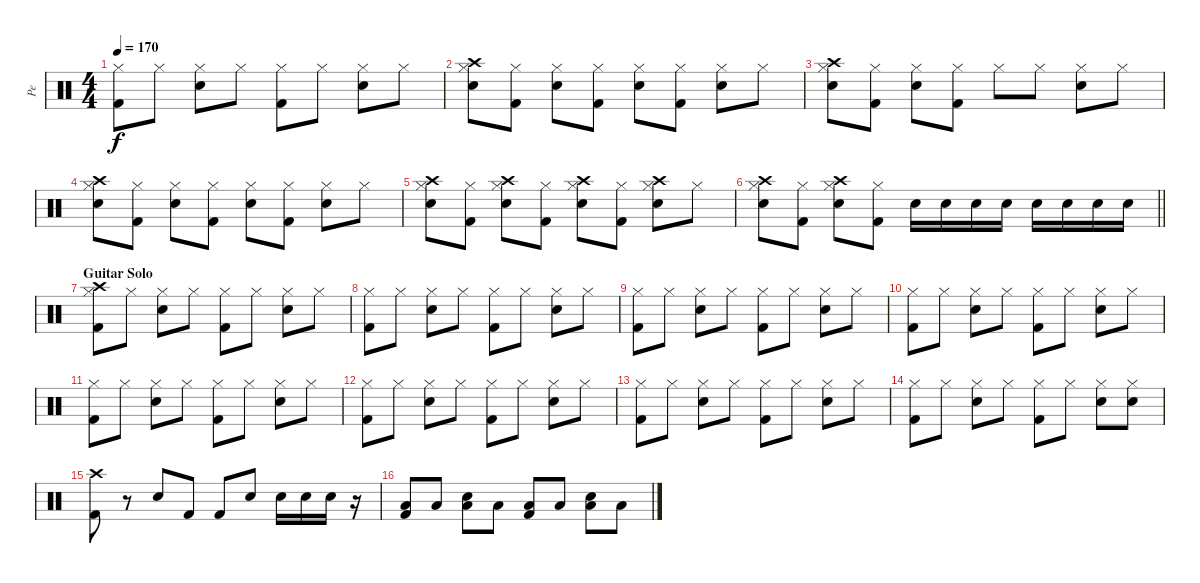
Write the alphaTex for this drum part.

\track ("Pe" "Pe") {instrument percussion}
\staff {score}
\articulation defaults
\ts (4 4)
\tempo 170
\clef neutral
\ks c
("Hi-Hat (closed)" "Kick (hit) 2").8{dy f} "Hi-Hat (closed)".8 ("Hi-Hat (closed)" "Snare (hit) 2").8 "Hi-Hat (closed)".8 ("Hi-Hat (closed)" "Kick (hit) 2").8 "Hi-Hat (closed)".8 ("Hi-Hat (closed)" "Snare (hit) 2").8 "Hi-Hat (closed)".8 |
("Crash high (hit)" "Hi-Hat (closed)" "Snare (hit) 2").8 ("Hi-Hat (closed)" "Kick (hit) 2").8 ("Hi-Hat (closed)" "Snare (hit) 2").8 ("Hi-Hat (closed)" "Kick (hit) 2").8 ("Hi-Hat (closed)" "Snare (hit) 2").8 ("Hi-Hat (closed)" "Kick (hit) 2").8 ("Hi-Hat (closed)" "Snare (hit) 2").8 "Hi-Hat (closed)".8 |
("Crash high (hit)" "Hi-Hat (closed)" "Snare (hit) 2").8 ("Hi-Hat (closed)" "Kick (hit) 2").8 ("Hi-Hat (closed)" "Snare (hit) 2").8 ("Hi-Hat (closed)" "Kick (hit) 2").8 "Hi-Hat (closed)".8 "Hi-Hat (closed)".8 ("Hi-Hat (closed)" "Snare (hit) 2").8 "Hi-Hat (closed)".8 |
("Crash high (hit)" "Hi-Hat (closed)" "Snare (hit) 2").8 ("Hi-Hat (closed)" "Kick (hit) 2").8 ("Hi-Hat (closed)" "Snare (hit) 2").8 ("Hi-Hat (closed)" "Kick (hit) 2").8 ("Hi-Hat (closed)" "Snare (hit) 2").8 ("Hi-Hat (closed)" "Kick (hit) 2").8 ("Hi-Hat (closed)" "Snare (hit) 2").8 "Hi-Hat (closed)".8 |
("Crash high (hit)" "Hi-Hat (closed)" "Snare (hit) 2").8 ("Hi-Hat (closed)" "Kick (hit) 2").8 ("Crash high (hit)" "Hi-Hat (closed)" "Snare (hit) 2").8 ("Hi-Hat (closed)" "Kick (hit) 2").8 ("Crash high (hit)" "Hi-Hat (closed)" "Snare (hit) 2").8 ("Hi-Hat (closed)" "Kick (hit) 2").8 ("Crash high (hit)" "Hi-Hat (closed)" "Snare (hit) 2").8 "Hi-Hat (closed)".8 |
\barLineRight lightlight
("Crash high (hit)" "Hi-Hat (closed)" "Snare (hit) 2").8 ("Hi-Hat (closed)" "Kick (hit) 2").8 ("Crash high (hit)" "Hi-Hat (closed)" "Snare (hit) 2").8 ("Hi-Hat (closed)" "Kick (hit) 2").8 "Snare (hit) 2".16 "Snare (hit) 2".16 "Snare (hit) 2".16 "Snare (hit) 2".16 "Snare (hit) 2".16 "Snare (hit) 2".16 "Snare (hit) 2".16 "Snare (hit) 2".16 |
\section ("" "Guitar Solo")
("Crash high (hit)" "Hi-Hat (closed)" "Kick (hit) 2").8 "Hi-Hat (closed)".8 ("Hi-Hat (closed)" "Snare (hit) 2").8 "Hi-Hat (closed)".8 ("Hi-Hat (closed)" "Kick (hit) 2").8 "Hi-Hat (closed)".8 ("Hi-Hat (closed)" "Snare (hit) 2").8 "Hi-Hat (closed)".8 |
("Hi-Hat (closed)" "Kick (hit) 2").8 "Hi-Hat (closed)".8 ("Hi-Hat (closed)" "Snare (hit) 2").8 "Hi-Hat (closed)".8 ("Hi-Hat (closed)" "Kick (hit) 2").8 "Hi-Hat (closed)".8 ("Hi-Hat (closed)" "Snare (hit) 2").8 "Hi-Hat (closed)".8 |
("Hi-Hat (closed)" "Kick (hit) 2").8 "Hi-Hat (closed)".8 ("Hi-Hat (closed)" "Snare (hit) 2").8 "Hi-Hat (closed)".8 ("Hi-Hat (closed)" "Kick (hit) 2").8 "Hi-Hat (closed)".8 ("Hi-Hat (closed)" "Snare (hit) 2").8 "Hi-Hat (closed)".8 |
("Hi-Hat (closed)" "Kick (hit) 2").8 "Hi-Hat (closed)".8 ("Hi-Hat (closed)" "Snare (hit) 2").8 "Hi-Hat (closed)".8 ("Hi-Hat (closed)" "Kick (hit) 2").8 "Hi-Hat (closed)".8 ("Hi-Hat (closed)" "Snare (hit) 2").8 "Hi-Hat (closed)".8 |
("Hi-Hat (closed)" "Kick (hit) 2").8 "Hi-Hat (closed)".8 ("Hi-Hat (closed)" "Snare (hit) 2").8 "Hi-Hat (closed)".8 ("Hi-Hat (closed)" "Kick (hit) 2").8 "Hi-Hat (closed)".8 ("Hi-Hat (closed)" "Snare (hit) 2").8 "Hi-Hat (closed)".8 |
("Hi-Hat (closed)" "Kick (hit) 2").8 "Hi-Hat (closed)".8 ("Hi-Hat (closed)" "Snare (hit) 2").8 "Hi-Hat (closed)".8 ("Hi-Hat (closed)" "Kick (hit) 2").8 "Hi-Hat (closed)".8 ("Hi-Hat (closed)" "Snare (hit) 2").8 "Hi-Hat (closed)".8 |
("Hi-Hat (closed)" "Kick (hit) 2").8 "Hi-Hat (closed)".8 ("Hi-Hat (closed)" "Snare (hit) 2").8 "Hi-Hat (closed)".8 ("Hi-Hat (closed)" "Kick (hit) 2").8 "Hi-Hat (closed)".8 ("Hi-Hat (closed)" "Snare (hit) 2").8 "Hi-Hat (closed)".8 |
("Hi-Hat (closed)" "Kick (hit) 2").8 "Hi-Hat (closed)".8 ("Hi-Hat (closed)" "Snare (hit) 2").8 "Hi-Hat (closed)".8 ("Hi-Hat (closed)" "Kick (hit) 2").8 "Hi-Hat (closed)".8 ("Hi-Hat (closed)" "Snare (hit) 2").8 ("Hi-Hat (closed)" "Snare (hit) 2").8 |
("Crash high (hit)" "Kick (hit) 2").8 r.8 "Snare (hit) 2".8 "Kick (hit) 2".8 "Kick (hit) 2".8 "Snare (hit) 2".8 "Snare (hit) 2".16 "Snare (hit) 2".16 "Snare (hit) 2".16 r.16 |
("Low Floor Tom (hit)" "Kick (hit) 2").8 "Low Floor Tom (hit)".8 ("Snare (hit) 2" "Low Floor Tom (hit)").8 "Low Floor Tom (hit)".8 ("Low Floor Tom (hit)" "Kick (hit) 2").8 "Low Floor Tom (hit)".8 ("Snare (hit) 2" "Low Floor Tom (hit)").8 "Low Floor Tom (hit)".8
